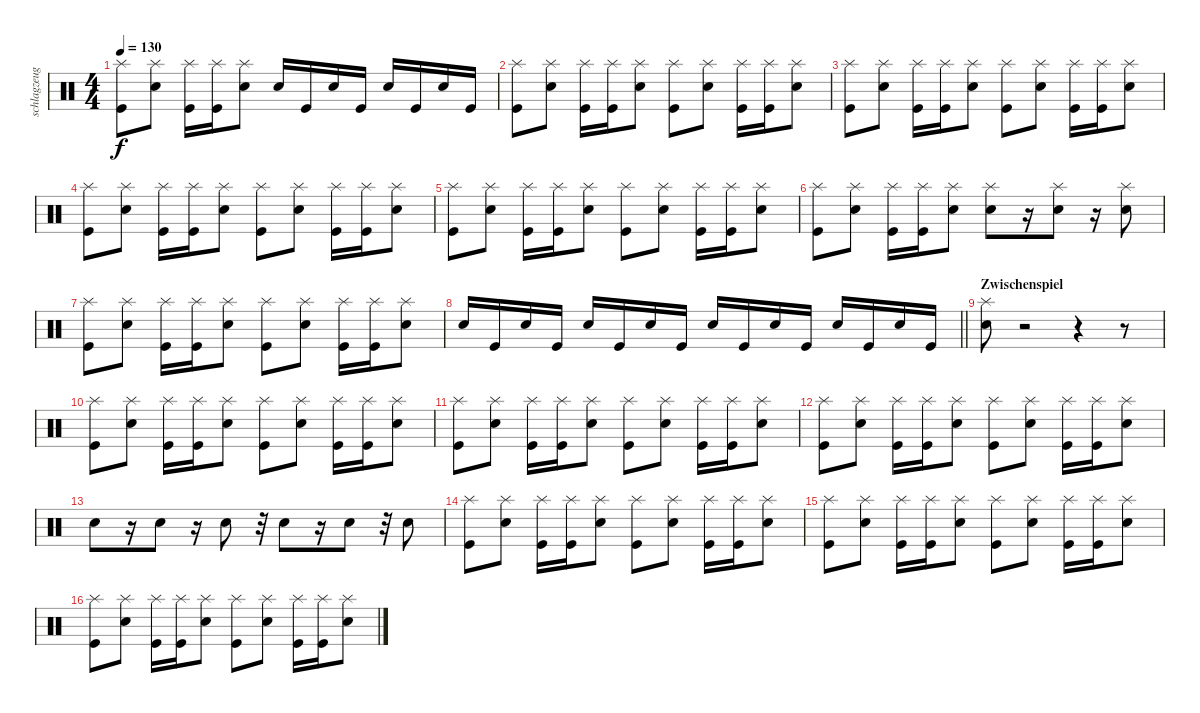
\track ("schlagzeug" "schlagzeug") {instrument percussion}
\staff {score}
\articulation defaults
\ts (4 4)
\tempo 130
\clef neutral
\ks c
("Kick (hit)" "Splash (hit)").8{dy f} ("Snare (hit) 2" "Splash (hit)").8 ("Kick (hit)" "Splash (hit)").16 ("Kick (hit)" "Splash (hit)").16 ("Snare (hit) 2" "Splash (hit)").8 "Snare (hit) 2".16 "Kick (hit)".16 "Snare (hit) 2".16 "Kick (hit)".16 "Snare (hit) 2".16 "Kick (hit)".16 "Snare (hit) 2".16 "Kick (hit)".16 |
("Kick (hit)" "Splash (hit)").8 ("Snare (hit) 2" "Splash (hit)").8 ("Kick (hit)" "Splash (hit)").16 ("Kick (hit)" "Splash (hit)").16 ("Snare (hit) 2" "Splash (hit)").8 ("Kick (hit)" "Splash (hit)").8 ("Snare (hit) 2" "Splash (hit)").8 ("Kick (hit)" "Splash (hit)").16 ("Kick (hit)" "Splash (hit)").16 ("Snare (hit) 2" "Splash (hit)").8 |
("Kick (hit)" "Splash (hit)").8 ("Snare (hit) 2" "Splash (hit)").8 ("Kick (hit)" "Splash (hit)").16 ("Kick (hit)" "Splash (hit)").16 ("Snare (hit) 2" "Splash (hit)").8 ("Kick (hit)" "Splash (hit)").8 ("Snare (hit) 2" "Splash (hit)").8 ("Kick (hit)" "Splash (hit)").16 ("Kick (hit)" "Splash (hit)").16 ("Snare (hit) 2" "Splash (hit)").8 |
("Kick (hit)" "Splash (hit)").8 ("Snare (hit) 2" "Splash (hit)").8 ("Kick (hit)" "Splash (hit)").16 ("Kick (hit)" "Splash (hit)").16 ("Snare (hit) 2" "Splash (hit)").8 ("Kick (hit)" "Splash (hit)").8 ("Snare (hit) 2" "Splash (hit)").8 ("Kick (hit)" "Splash (hit)").16 ("Kick (hit)" "Splash (hit)").16 ("Snare (hit) 2" "Splash (hit)").8 |
("Kick (hit)" "Splash (hit)").8 ("Snare (hit) 2" "Splash (hit)").8 ("Kick (hit)" "Splash (hit)").16 ("Kick (hit)" "Splash (hit)").16 ("Snare (hit) 2" "Splash (hit)").8 ("Kick (hit)" "Splash (hit)").8 ("Snare (hit) 2" "Splash (hit)").8 ("Kick (hit)" "Splash (hit)").16 ("Kick (hit)" "Splash (hit)").16 ("Snare (hit) 2" "Splash (hit)").8 |
("Kick (hit)" "Splash (hit)").8 ("Snare (hit) 2" "Splash (hit)").8 ("Kick (hit)" "Splash (hit)").16 ("Kick (hit)" "Splash (hit)").16 ("Snare (hit) 2" "Splash (hit)").8 ("Snare (hit) 2" "Splash (hit)").8 r.16 ("Snare (hit) 2" "Splash (hit)").8 r.16 ("Snare (hit) 2" "Splash (hit)").8 |
("Kick (hit)" "Splash (hit)").8 ("Snare (hit) 2" "Splash (hit)").8 ("Kick (hit)" "Splash (hit)").16 ("Kick (hit)" "Splash (hit)").16 ("Snare (hit) 2" "Splash (hit)").8 ("Kick (hit)" "Splash (hit)").8 ("Snare (hit) 2" "Splash (hit)").8 ("Kick (hit)" "Splash (hit)").16 ("Kick (hit)" "Splash (hit)").16 ("Snare (hit) 2" "Splash (hit)").8 |
\barLineRight lightlight "Snare (hit) 2".16 "Kick (hit)".16 "Snare (hit) 2".16 "Kick (hit)".16 "Snare (hit) 2".16 "Kick (hit)".16 "Snare (hit) 2".16 "Kick (hit)".16 "Snare (hit) 2".16 "Kick (hit)".16 "Snare (hit) 2".16 "Kick (hit)".16 "Snare (hit) 2".16 "Kick (hit)".16 "Snare (hit) 2".16 "Kick (hit)".16
|
\section ("" "Zwischenspiel")
("Snare (hit) 2" "Splash (hit)").8 r.2 r.4 r.8 |
("Kick (hit)" "Splash (hit)").8 ("Snare (hit) 2" "Splash (hit)").8 ("Kick (hit)" "Splash (hit)").16 ("Kick (hit)" "Splash (hit)").16 ("Snare (hit) 2" "Splash (hit)").8 ("Kick (hit)" "Splash (hit)").8 ("Snare (hit) 2" "Splash (hit)").8 ("Kick (hit)" "Splash (hit)").16 ("Kick (hit)" "Splash (hit)").16 ("Snare (hit) 2" "Splash (hit)").8 |
("Kick (hit)" "Splash (hit)").8 ("Snare (hit) 2" "Splash (hit)").8 ("Kick (hit)" "Splash (hit)").16 ("Kick (hit)" "Splash (hit)").16 ("Snare (hit) 2" "Splash (hit)").8 ("Kick (hit)" "Splash (hit)").8 ("Snare (hit) 2" "Splash (hit)").8 ("Kick (hit)" "Splash (hit)").16 ("Kick (hit)" "Splash (hit)").16 ("Snare (hit) 2" "Splash (hit)").8 |
("Kick (hit)" "Splash (hit)").8 ("Snare (hit) 2" "Splash (hit)").8 ("Kick (hit)" "Splash (hit)").16 ("Kick (hit)" "Splash (hit)").16 ("Snare (hit) 2" "Splash (hit)").8 ("Kick (hit)" "Splash (hit)").8 ("Snare (hit) 2" "Splash (hit)").8 ("Kick (hit)" "Splash (hit)").16 ("Kick (hit)" "Splash (hit)").16 ("Snare (hit) 2" "Splash (hit)").8 |
"Snare (hit) 2".8 r.16 "Snare (hit) 2".8 r.16 "Snare (hit) 2".8 r.32 "Snare (hit) 2".8 r.16 "Snare (hit) 2".8 r.32 "Snare (hit) 2".8 |
("Kick (hit)" "Splash (hit)").8 ("Snare (hit) 2" "Splash (hit)").8 ("Kick (hit)" "Splash (hit)").16 ("Kick (hit)" "Splash (hit)").16 ("Snare (hit) 2" "Splash (hit)").8 ("Kick (hit)" "Splash (hit)").8 ("Snare (hit) 2" "Splash (hit)").8 ("Kick (hit)" "Splash (hit)").16 ("Kick (hit)" "Splash (hit)").16 ("Snare (hit) 2" "Splash (hit)").8 |
("Kick (hit)" "Splash (hit)").8 ("Snare (hit) 2" "Splash (hit)").8 ("Kick (hit)" "Splash (hit)").16 ("Kick (hit)" "Splash (hit)").16 ("Snare (hit) 2" "Splash (hit)").8 ("Kick (hit)" "Splash (hit)").8 ("Snare (hit) 2" "Splash (hit)").8 ("Kick (hit)" "Splash (hit)").16 ("Kick (hit)" "Splash (hit)").16 ("Snare (hit) 2" "Splash (hit)").8 |
("Kick (hit)" "Splash (hit)").8 ("Snare (hit) 2" "Splash (hit)").8 ("Kick (hit)" "Splash (hit)").16 ("Kick (hit)" "Splash (hit)").16 ("Snare (hit) 2" "Splash (hit)").8 ("Kick (hit)" "Splash (hit)").8 ("Snare (hit) 2" "Splash (hit)").8 ("Kick (hit)" "Splash (hit)").16 ("Kick (hit)" "Splash (hit)").16 ("Snare (hit) 2" "Splash (hit)").8
